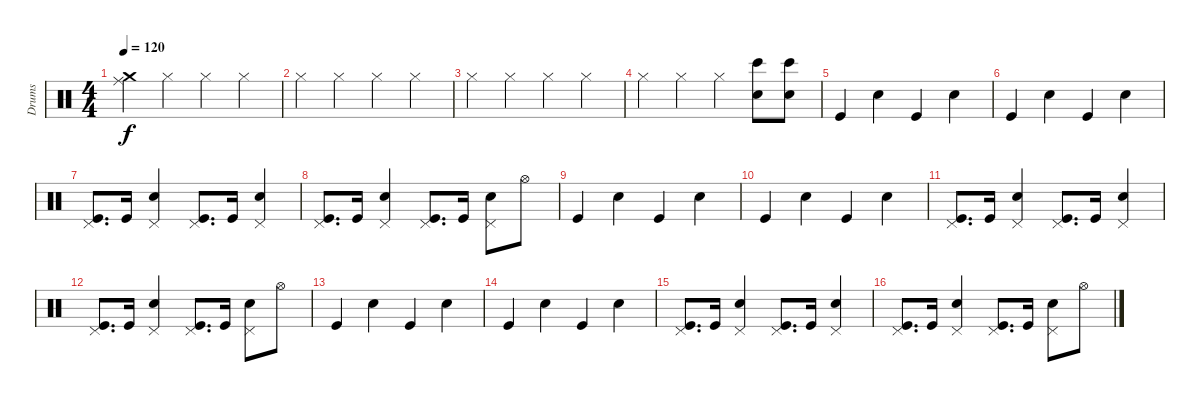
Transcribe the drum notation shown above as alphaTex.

\track ("Drums" "Drums") {instrument percussion}
\staff {score}
\articulation defaults
\ts (4 4)
\tempo 120
\clef neutral
\ks c
("Ride (middle)" "Crash medium (hit)").4{dy f} "Hi-Hat (closed)".4 "Hi-Hat (closed)".4 "Hi-Hat (closed)".4 |
"Hi-Hat (closed)".4 "Hi-Hat (closed)".4 "Hi-Hat (closed)".4 "Hi-Hat (closed)".4 |
"Hi-Hat (closed)".4 "Hi-Hat (closed)".4 "Hi-Hat (closed)".4 "Hi-Hat (closed)".4 |
"Hi-Hat (closed)".4 "Hi-Hat (closed)".4 "Hi-Hat (closed)".4 ("Bongo High (hit)" "Hand Clap (hit)").8 ("Bongo High (hit)" "Hand Clap (hit)").8 |
"Kick (hit)".4 "Snare (hit) 2".4 "Kick (hit)".4 "Snare (hit) 2".4 |
"Kick (hit)".4 "Snare (hit) 2".4 "Kick (hit)".4 "Snare (hit) 2".4 |
("Kick (hit)" "Pedal Hi-Hat (hit)").8{d} "Kick (hit)".16 ("Snare (hit) 2" "Pedal Hi-Hat (hit)").4 ("Kick (hit)" "Pedal Hi-Hat (hit)").8{d} "Kick (hit)".16 ("Snare (hit) 2" "Pedal Hi-Hat (hit)").4 |
("Kick (hit)" "Pedal Hi-Hat (hit)").8{d} "Kick (hit)".16 ("Snare (hit) 2" "Pedal Hi-Hat (hit)").4 ("Kick (hit)" "Pedal Hi-Hat (hit)").8{d} "Kick (hit)".16 ("Snare (hit) 2" "Pedal Hi-Hat (hit)").8 "Hi-Hat (open)".8 |
"Kick (hit)".4 "Snare (hit) 2".4 "Kick (hit)".4 "Snare (hit) 2".4 |
"Kick (hit)".4 "Snare (hit) 2".4 "Kick (hit)".4 "Snare (hit) 2".4 |
("Kick (hit)" "Pedal Hi-Hat (hit)").8{d} "Kick (hit)".16 ("Snare (hit) 2" "Pedal Hi-Hat (hit)").4 ("Kick (hit)" "Pedal Hi-Hat (hit)").8{d} "Kick (hit)".16 ("Snare (hit) 2" "Pedal Hi-Hat (hit)").4 |
("Kick (hit)" "Pedal Hi-Hat (hit)").8{d} "Kick (hit)".16 ("Snare (hit) 2" "Pedal Hi-Hat (hit)").4 ("Kick (hit)" "Pedal Hi-Hat (hit)").8{d} "Kick (hit)".16 ("Snare (hit) 2" "Pedal Hi-Hat (hit)").8 "Hi-Hat (open)".8 |
"Kick (hit)".4 "Snare (hit) 2".4 "Kick (hit)".4 "Snare (hit) 2".4 |
"Kick (hit)".4 "Snare (hit) 2".4 "Kick (hit)".4 "Snare (hit) 2".4 |
("Kick (hit)" "Pedal Hi-Hat (hit)").8{d} "Kick (hit)".16 ("Snare (hit) 2" "Pedal Hi-Hat (hit)").4 ("Kick (hit)" "Pedal Hi-Hat (hit)").8{d} "Kick (hit)".16 ("Snare (hit) 2" "Pedal Hi-Hat (hit)").4 |
("Kick (hit)" "Pedal Hi-Hat (hit)").8{d} "Kick (hit)".16 ("Snare (hit) 2" "Pedal Hi-Hat (hit)").4 ("Kick (hit)" "Pedal Hi-Hat (hit)").8{d} "Kick (hit)".16 ("Snare (hit) 2" "Pedal Hi-Hat (hit)").8 "Hi-Hat (open)".8
